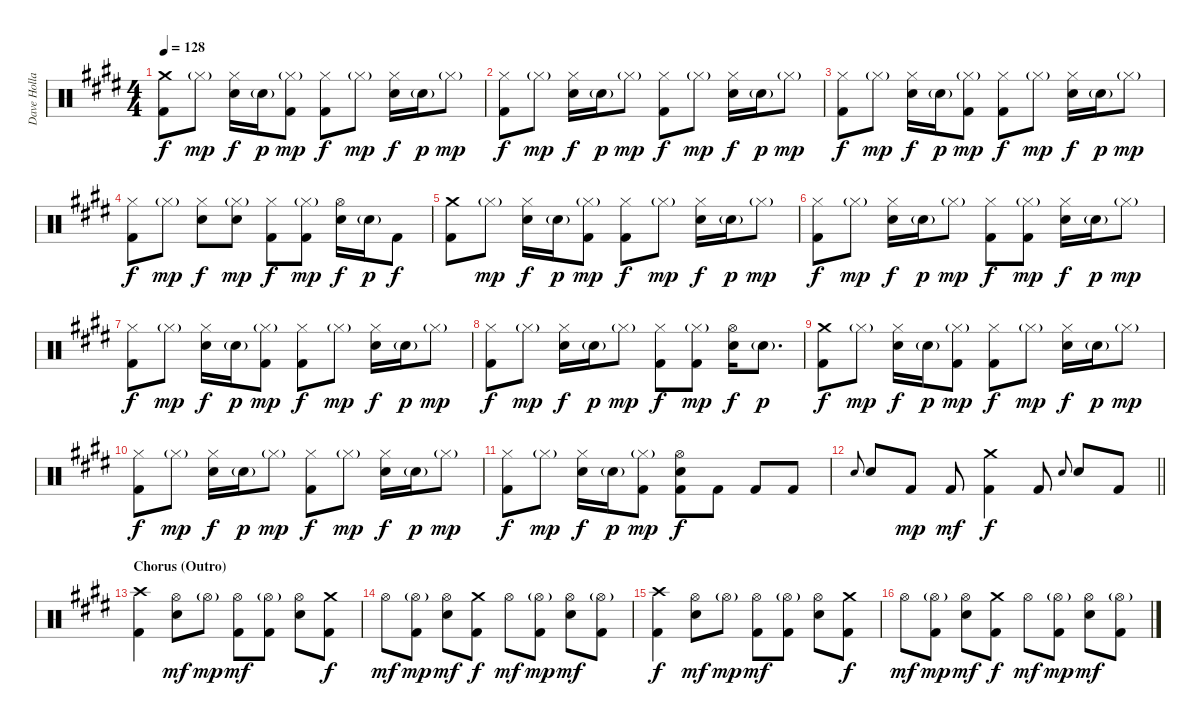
\track ("Dave Holland" "Dave Holla") {instrument percussion}
\staff {score}
\articulation defaults
\ts (4 4)
\tempo 128
\clef neutral
\ks e
("Crash medium (hit)" "Kick (hit) 2").8{dy f} "Hi-Hat (closed)"{g}.8{dy mp} ("Hi-Hat (closed)" "Electric Snare (hit)").16{dy f} "Electric Snare (hit)"{g}.16{dy p} ("Hi-Hat (closed)"{g} "Kick (hit) 2").8{dy mp} ("Hi-Hat (closed)" "Kick (hit) 2").8{dy f} "Hi-Hat (closed)"{g}.8{dy mp} ("Hi-Hat (closed)" "Electric Snare (hit)").16{dy f} "Electric Snare (hit)"{g}.16{dy p} "Hi-Hat (closed)"{g}.8{dy mp} |
("Hi-Hat (closed)" "Kick (hit) 2").8{dy f} "Hi-Hat (closed)"{g}.8{dy mp} ("Hi-Hat (closed)" "Electric Snare (hit)").16{dy f} "Electric Snare (hit)"{g}.16{dy p} "Hi-Hat (closed)"{g}.8{dy mp} ("Hi-Hat (closed)" "Kick (hit) 2").8{dy f} "Hi-Hat (closed)"{g}.8{dy mp} ("Hi-Hat (closed)" "Electric Snare (hit)").16{dy f} "Electric Snare (hit)"{g}.16{dy p} "Hi-Hat (closed)"{g}.8{dy mp} |
("Hi-Hat (closed)" "Kick (hit) 2").8{dy f} "Hi-Hat (closed)"{g}.8{dy mp} ("Hi-Hat (closed)" "Electric Snare (hit)").16{dy f} "Electric Snare (hit)"{g}.16{dy p} ("Hi-Hat (closed)"{g} "Kick (hit) 2").8{dy mp} ("Hi-Hat (closed)" "Kick (hit) 2").8{dy f} "Hi-Hat (closed)"{g}.8{dy mp} ("Hi-Hat (closed)" "Electric Snare (hit)").16{dy f} "Electric Snare (hit)"{g}.16{dy p} "Hi-Hat (closed)"{g}.8{dy mp} |
("Hi-Hat (closed)" "Kick (hit) 2").8{dy f} "Hi-Hat (closed)"{g}.8{dy mp} ("Hi-Hat (closed)" "Electric Snare (hit)").8{dy f} ("Hi-Hat (closed)"{g} "Electric Snare (hit)").8{dy mp} ("Hi-Hat (closed)" "Kick (hit) 2").8{dy f} ("Hi-Hat (closed)"{g} "Kick (hit) 2").8{dy mp} ("Hi-Hat (open)" "Electric Snare (hit)").16{dy f} "Electric Snare (hit)"{g}.16{dy p} "Kick (hit) 2".8{dy f} |
("Crash medium (hit)" "Kick (hit) 2").8 "Hi-Hat (closed)"{g}.8{dy mp} ("Hi-Hat (closed)" "Electric Snare (hit)").16{dy f} "Electric Snare (hit)"{g}.16{dy p} ("Hi-Hat (closed)"{g} "Kick (hit) 2").8{dy mp} ("Hi-Hat (closed)" "Kick (hit) 2").8{dy f} "Hi-Hat (closed)"{g}.8{dy mp} ("Hi-Hat (closed)" "Electric Snare (hit)").16{dy f} "Electric Snare (hit)"{g}.16{dy p} "Hi-Hat (closed)"{g}.8{dy mp} |
("Hi-Hat (closed)" "Kick (hit) 2").8{dy f} "Hi-Hat (closed)"{g}.8{dy mp} ("Hi-Hat (closed)" "Electric Snare (hit)").16{dy f} "Electric Snare (hit)"{g}.16{dy p} "Hi-Hat (closed)"{g}.8{dy mp} ("Hi-Hat (closed)" "Kick (hit) 2").8{dy f} ("Hi-Hat (closed)"{g} "Kick (hit) 2").8{dy mp} ("Hi-Hat (closed)" "Electric Snare (hit)").16{dy f} "Electric Snare (hit)"{g}.16{dy p} "Hi-Hat (closed)"{g}.8{dy mp} |
("Hi-Hat (closed)" "Kick (hit) 2").8{dy f} "Hi-Hat (closed)"{g}.8{dy mp} ("Hi-Hat (closed)" "Electric Snare (hit)").16{dy f} "Electric Snare (hit)"{g}.16{dy p} ("Hi-Hat (closed)"{g} "Kick (hit) 2").8{dy mp} ("Hi-Hat (closed)" "Kick (hit) 2").8{dy f} "Hi-Hat (closed)"{g}.8{dy mp} ("Hi-Hat (closed)" "Electric Snare (hit)").16{dy f} "Electric Snare (hit)"{g}.16{dy p} "Hi-Hat (closed)"{g}.8{dy mp} |
("Hi-Hat (closed)" "Kick (hit) 2").8{dy f} "Hi-Hat (closed)"{g}.8{dy mp} ("Hi-Hat (closed)" "Electric Snare (hit)").16{dy f} "Electric Snare (hit)"{g}.16{dy p} "Hi-Hat (closed)"{g}.8{dy mp} ("Hi-Hat (closed)" "Kick (hit) 2").8{dy f} ("Hi-Hat (closed)"{g} "Kick (hit) 2").8{dy mp} ("Hi-Hat (open)" "Electric Snare (hit)").16{dy f} "Electric Snare (hit)"{g}.8{d dy p} |
("Crash medium (hit)" "Kick (hit) 2").8{dy f} "Hi-Hat (closed)"{g}.8{dy mp} ("Hi-Hat (closed)" "Electric Snare (hit)").16{dy f} "Electric Snare (hit)"{g}.16{dy p} ("Hi-Hat (closed)"{g} "Kick (hit) 2").8{dy mp} ("Hi-Hat (closed)" "Kick (hit) 2").8{dy f} "Hi-Hat (closed)"{g}.8{dy mp} ("Hi-Hat (closed)" "Electric Snare (hit)").16{dy f} "Electric Snare (hit)"{g}.16{dy p} "Hi-Hat (closed)"{g}.8{dy mp} |
("Hi-Hat (closed)" "Kick (hit) 2").8{dy f} "Hi-Hat (closed)"{g}.8{dy mp} ("Hi-Hat (closed)" "Electric Snare (hit)").16{dy f} "Electric Snare (hit)"{g}.16{dy p} "Hi-Hat (closed)"{g}.8{dy mp} ("Hi-Hat (closed)" "Kick (hit) 2").8{dy f} "Hi-Hat (closed)"{g}.8{dy mp} ("Hi-Hat (closed)" "Electric Snare (hit)").16{dy f} "Electric Snare (hit)"{g}.16{dy p} "Hi-Hat (closed)"{g}.8{dy mp} |
("Hi-Hat (closed)" "Kick (hit) 2").8{dy f} "Hi-Hat (closed)"{g}.8{dy mp} ("Hi-Hat (closed)" "Electric Snare (hit)").16{dy f} "Electric Snare (hit)"{g}.16{dy p} ("Hi-Hat (closed)"{g} "Kick (hit) 2").8{dy mp} ("Hi-Hat (open)" "Electric Snare (hit)" "Kick (hit) 2").8{dy f} "Kick (hit) 2".8 "Kick (hit) 2".8 "Kick (hit) 2".8 |
\barLineRight lightlight "Electric Snare (hit)".8{gr onbeat} "Electric Snare (hit)".8 "Kick (hit) 2".8{dy mp} "Kick (hit) 2".8{dy mf}
("Crash medium (hit)" "Kick (hit) 2").4{dy f} "Kick (hit) 2".8 "Electric Snare (hit)".8{gr onbeat} "Electric Snare (hit)".8 "Kick (hit) 2".8 |
\section ("" "Chorus (Outro)")
("Crash high (hit)" "Kick (hit) 2").4 ("Hi-Hat (open)" "Electric Snare (hit)").8{dy mf} "Hi-Hat (open)"{g}.8{dy mp} ("Hi-Hat (open)" "Kick (hit) 2").8{dy mf} ("Hi-Hat (open)"{g} "Kick (hit) 2").8 ("Hi-Hat (open)" "Electric Snare (hit)").8 ("Crash medium (hit)" "Kick (hit) 2").8{dy f} |
"Hi-Hat (open)".8{dy mf} ("Hi-Hat (open)"{g} "Kick (hit) 2").8{dy mp} ("Hi-Hat (open)" "Electric Snare (hit)").8{dy mf} ("Crash medium (hit)" "Kick (hit) 2").8{dy f} "Hi-Hat (open)".8{dy mf} ("Hi-Hat (open)"{g} "Kick (hit) 2").8{dy mp} ("Hi-Hat (open)" "Electric Snare (hit)").8{dy mf} ("Hi-Hat (open)"{g} "Kick (hit) 2").8 |
("Crash high (hit)" "Kick (hit) 2").4{dy f} ("Hi-Hat (open)" "Electric Snare (hit)").8{dy mf} "Hi-Hat (open)"{g}.8{dy mp} ("Hi-Hat (open)" "Kick (hit) 2").8{dy mf} ("Hi-Hat (open)"{g} "Kick (hit) 2").8 ("Hi-Hat (open)" "Electric Snare (hit)").8 ("Crash medium (hit)" "Kick (hit) 2").8{dy f} |
"Hi-Hat (open)".8{dy mf} ("Hi-Hat (open)"{g} "Kick (hit) 2").8{dy mp} ("Hi-Hat (open)" "Electric Snare (hit)").8{dy mf} ("Crash medium (hit)" "Kick (hit) 2").8{dy f} "Hi-Hat (open)".8{dy mf} ("Hi-Hat (open)"{g} "Kick (hit) 2").8{dy mp} ("Hi-Hat (open)" "Electric Snare (hit)").8{dy mf} ("Hi-Hat (open)"{g} "Kick (hit) 2").8
